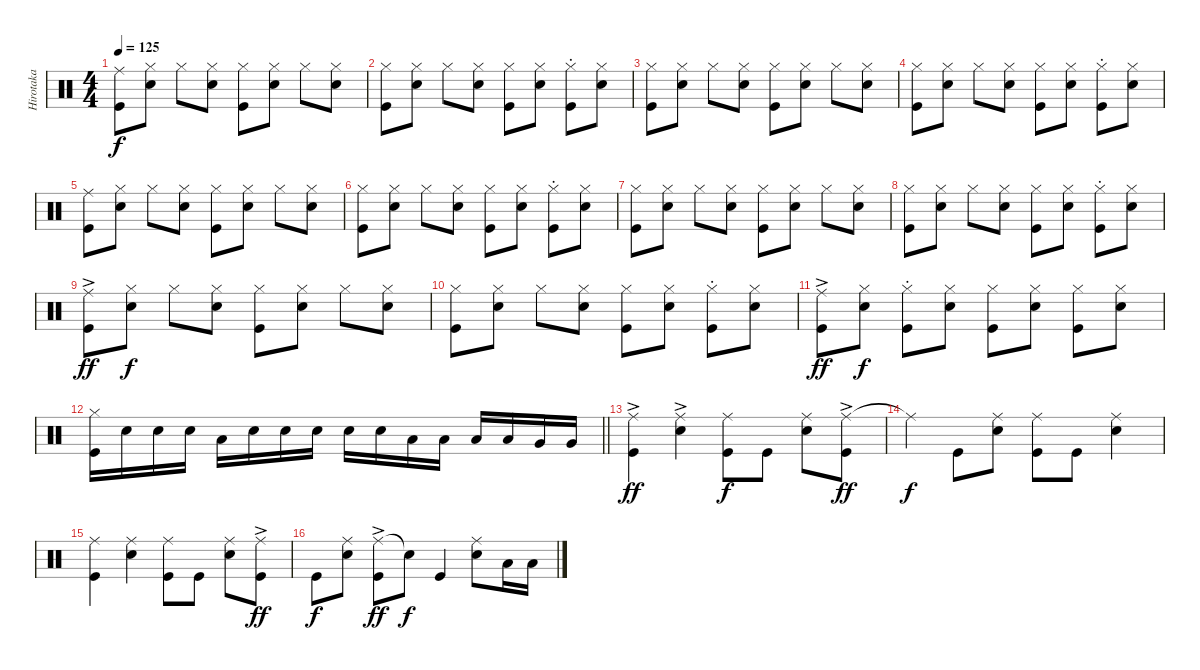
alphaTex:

\track ("Hirotaka" "Hirotaka") {instrument percussion}
\staff {score}
\articulation defaults
\ts (4 4)
\tempo 125
\clef neutral
\ks c
("Ride (middle)" "Kick (hit)").8{dy f} ("Hi-Hat (closed)" "Snare (hit) 2").8 "Hi-Hat (closed)".8 ("Hi-Hat (closed)" "Snare (hit) 2").8 ("Hi-Hat (closed)" "Kick (hit)").8 ("Hi-Hat (closed)" "Snare (hit) 2").8 "Hi-Hat (closed)".8 ("Hi-Hat (closed)" "Snare (hit) 2").8 |
("Hi-Hat (closed)" "Kick (hit)").8 ("Hi-Hat (closed)" "Snare (hit) 2").8 "Hi-Hat (closed)".8 ("Hi-Hat (closed)" "Snare (hit) 2").8 ("Hi-Hat (closed)" "Kick (hit)").8 ("Hi-Hat (closed)" "Snare (hit) 2").8 ("Hi-Hat (closed)" "Kick (hit)"{st}).8 ("Hi-Hat (closed)" "Snare (hit) 2").8 |
("Hi-Hat (closed)" "Kick (hit)").8 ("Hi-Hat (closed)" "Snare (hit) 2").8 "Hi-Hat (closed)".8 ("Hi-Hat (closed)" "Snare (hit) 2").8 ("Hi-Hat (closed)" "Kick (hit)").8 ("Hi-Hat (closed)" "Snare (hit) 2").8 "Hi-Hat (closed)".8 ("Hi-Hat (closed)" "Snare (hit) 2").8 |
("Hi-Hat (closed)" "Kick (hit)").8 ("Hi-Hat (closed)" "Snare (hit) 2").8 "Hi-Hat (closed)".8 ("Hi-Hat (closed)" "Snare (hit) 2").8 ("Hi-Hat (closed)" "Kick (hit)").8 ("Hi-Hat (closed)" "Snare (hit) 2").8 ("Hi-Hat (closed)" "Kick (hit)"{st}).8 ("Hi-Hat (closed)" "Snare (hit) 2").8 |
("Ride (middle)" "Kick (hit)").8 ("Hi-Hat (closed)" "Snare (hit) 2").8 "Hi-Hat (closed)".8 ("Hi-Hat (closed)" "Snare (hit) 2").8 ("Hi-Hat (closed)" "Kick (hit)").8 ("Hi-Hat (closed)" "Snare (hit) 2").8 "Hi-Hat (closed)".8 ("Hi-Hat (closed)" "Snare (hit) 2").8 |
("Hi-Hat (closed)" "Kick (hit)").8 ("Hi-Hat (closed)" "Snare (hit) 2").8 "Hi-Hat (closed)".8 ("Hi-Hat (closed)" "Snare (hit) 2").8 ("Hi-Hat (closed)" "Kick (hit)").8 ("Hi-Hat (closed)" "Snare (hit) 2").8 ("Hi-Hat (closed)" "Kick (hit)"{st}).8 ("Hi-Hat (closed)" "Snare (hit) 2").8 |
("Hi-Hat (closed)" "Kick (hit)").8 ("Hi-Hat (closed)" "Snare (hit) 2").8 "Hi-Hat (closed)".8 ("Hi-Hat (closed)" "Snare (hit) 2").8 ("Hi-Hat (closed)" "Kick (hit)").8 ("Hi-Hat (closed)" "Snare (hit) 2").8 "Hi-Hat (closed)".8 ("Hi-Hat (closed)" "Snare (hit) 2").8 |
("Hi-Hat (closed)" "Kick (hit)").8 ("Hi-Hat (closed)" "Snare (hit) 2").8 "Hi-Hat (closed)".8 ("Hi-Hat (closed)" "Snare (hit) 2").8 ("Hi-Hat (closed)" "Kick (hit)").8 ("Hi-Hat (closed)" "Snare (hit) 2").8 ("Hi-Hat (closed)" "Kick (hit)"{st}).8 ("Hi-Hat (closed)" "Snare (hit) 2").8 |
("Ride (middle)"{ac} "Kick (hit)").8{dy ff} ("Hi-Hat (closed)" "Snare (hit) 2").8{dy f} "Hi-Hat (closed)".8 ("Hi-Hat (closed)" "Snare (hit) 2").8 ("Hi-Hat (closed)" "Kick (hit)").8 ("Hi-Hat (closed)" "Snare (hit) 2").8 "Hi-Hat (closed)".8 ("Hi-Hat (closed)" "Snare (hit) 2").8 |
("Hi-Hat (closed)" "Kick (hit)").8 ("Hi-Hat (closed)" "Snare (hit) 2").8 "Hi-Hat (closed)".8 ("Hi-Hat (closed)" "Snare (hit) 2").8 ("Hi-Hat (closed)" "Kick (hit)").8 ("Hi-Hat (closed)" "Snare (hit) 2").8 ("Hi-Hat (closed)" "Kick (hit)"{st}).8 ("Hi-Hat (closed)" "Snare (hit) 2").8 |
("Ride (middle)"{ac} "Kick (hit)").8{dy ff} ("Hi-Hat (closed)" "Snare (hit) 2").8{dy f} ("Hi-Hat (closed)" "Kick (hit)"{st}).8 ("Hi-Hat (closed)" "Snare (hit) 2").8 ("Hi-Hat (closed)" "Kick (hit)").8 ("Hi-Hat (closed)" "Snare (hit) 2").8 ("Hi-Hat (closed)" "Kick (hit)").8 ("Hi-Hat (closed)" "Snare (hit) 2").8 |
\barLineRight lightlight
("Hi-Hat (closed)" "Kick (hit)").16 "Snare (hit) 2".16 "Snare (hit) 2".16 "Snare (hit) 2".16 "Low Tom (hit)".16 "Snare (hit) 2".16 "Snare (hit) 2".16 "Snare (hit) 2".16 "Snare (hit) 2".16 "Snare (hit) 2".16 "Low Tom (hit)".16 "Low Tom (hit)".16 "Low Tom (hit)".16 "Low Tom (hit)".16 "Very Low Tom (hit)".16 "Very Low Tom (hit)".16 |
("Ride (middle)"{ac} "Kick (hit)").4{dy ff} ("Ride (middle)" "Snare (hit) 2"{ac}).4 ("Ride (middle)" "Kick (hit)").8{dy f} "Kick (hit)".8 ("Ride (middle)" "Snare (hit) 2").8 ("Ride (middle)"{ac} "Kick (hit)").8{dy ff} |
"Ride (middle)"{t}.4{dy f} "Kick (hit)".8 ("Ride (middle)" "Snare (hit) 2").8 ("Ride (middle)" "Kick (hit)").8 "Kick (hit)".8 ("Ride (middle)" "Snare (hit) 2").4 |
("Ride (middle)" "Kick (hit)").4 ("Ride (middle)" "Snare (hit) 2").4 ("Ride (middle)" "Kick (hit)").8 "Kick (hit)".8 ("Ride (middle)" "Snare (hit) 2").8 ("Ride (middle)"{ac} "Kick (hit)").8{dy ff} |
"Kick (hit)".8{dy f} ("Ride (middle)" "Snare (hit) 2").8 ("Ride (middle)"{ac} "Kick (hit)").8{dy ff} "Snare (hit)"{t}.8{dy f} "Kick (hit)".4 ("Ride (middle)" "Snare (hit) 2").8 "Low Tom (hit)".16 "Low Tom (hit)".16
